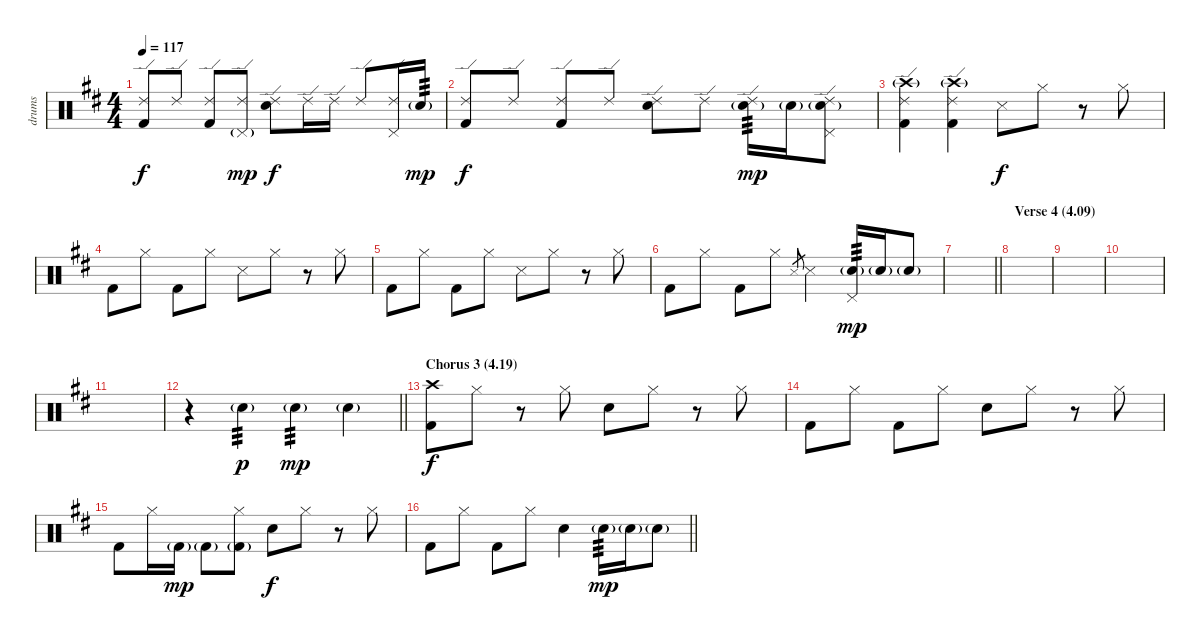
\track ("drums" "drums") {instrument percussion}
\staff {score}
\articulation defaults
\ts (4 4)
\tempo 117
\clef neutral
\ks d
("Ride (edge) 2" "Kick (hit) 2").8{dy f} "Ride (edge) 2".8 ("Ride (edge) 2" "Kick (hit) 2").8 ("Ride (edge) 2" "Pedal Hi-Hat (hit)"{g}).8{dy mp} ("Ride (edge) 2" "Electric Snare (hit)").8{dy f} "Ride (edge) 2".16 "Ride (edge) 2".16 "Ride (edge) 2".8 ("Ride (edge) 2" "Pedal Hi-Hat (hit)").16 "Electric Snare (hit)"{g}.16{tp 3 dy mp} |
("Ride (edge) 2" "Kick (hit) 2").8{dy f} "Ride (edge) 2".8 ("Ride (edge) 2" "Kick (hit) 2").8 "Ride (edge) 2".8 ("Ride (edge) 2" "Electric Snare (hit)").8 "Ride (edge) 2".8 ("Ride (edge) 2" "Electric Snare (hit)"{g}).16{tp 3 dy mp} "Electric Snare (hit)"{g}.16 ("Ride (edge) 2" "Pedal Hi-Hat (hit)" "Electric Snare (hit)"{g}).8 |
("Ride (edge) 2" "Crash high (hit)"{g} "Kick (hit) 2").4 ("Ride (edge) 2" "Crash high (hit)"{g} "Kick (hit) 2").4 "Snare (side stick) 3".8{dy f} "Hi-Hat (closed)".8 r.8 "Hi-Hat (closed)".8 |
"Kick (hit) 2".8 "Hi-Hat (closed)".8 "Kick (hit) 2".8 "Hi-Hat (closed)".8 "Snare (side stick) 3".8 "Hi-Hat (closed)".8 r.8 "Hi-Hat (closed)".8 |
"Kick (hit) 2".8 "Hi-Hat (closed)".8 "Kick (hit) 2".8 "Hi-Hat (closed)".8 "Snare (side stick) 3".8 "Hi-Hat (closed)".8 r.8 "Hi-Hat (closed)".8 |
"Kick (hit) 2".8 "Hi-Hat (closed)".8 "Kick (hit) 2".8 "Hi-Hat (closed)".8 "Snare (side stick) 3".8{gr} "Snare (side stick) 3".4 ("Pedal Hi-Hat (hit)" "Electric Snare (hit)"{g}).16{tp 3 dy mp} "Electric Snare (hit)"{g}.16 "Electric Snare (hit)"{g}.8 |
\barLineRight lightlight
|
\section ("" "Verse 4 (4.09)")
|
|
|
|
\barLineRight lightlight
r.4 "Electric Snare (hit)"{g}.4{tp 3 dy p} "Electric Snare (hit)"{g}.4{tp 3 dy mp} "Electric Snare (hit)"{g}.4 |
\section ("" "Chorus 3 (4.19)")
("Crash high (hit)" "Kick (hit) 2").8{dy f} "Hi-Hat (closed)".8 r.8 "Hi-Hat (closed)".8 "Electric Snare (hit)".8 "Hi-Hat (closed)".8 r.8 "Hi-Hat (closed)".8 |
"Kick (hit) 2".8 "Hi-Hat (closed)".8 "Kick (hit) 2".8 "Hi-Hat (closed)".8 "Electric Snare (hit)".8 "Hi-Hat (closed)".8 r.8 "Hi-Hat (closed)".8 |
"Kick (hit) 2".8 "Hi-Hat (closed)".16 "Kick (hit) 2"{g}.16{dy mp} "Kick (hit) 2"{g}.8 ("Hi-Hat (closed)" "Kick (hit) 2"{g}).8 "Electric Snare (hit)".8{dy f} "Hi-Hat (closed)".8 r.8 "Hi-Hat (closed)".8 |
\barLineRight lightlight "Kick (hit) 2".8 "Hi-Hat (closed)".8 "Kick (hit) 2".8 "Hi-Hat (closed)".8 "Electric Snare (hit)".4 "Electric Snare (hit)"{g}.16{tp 3 dy mp} "Electric Snare (hit)"{g}.16 "Electric Snare (hit)"{g}.8
